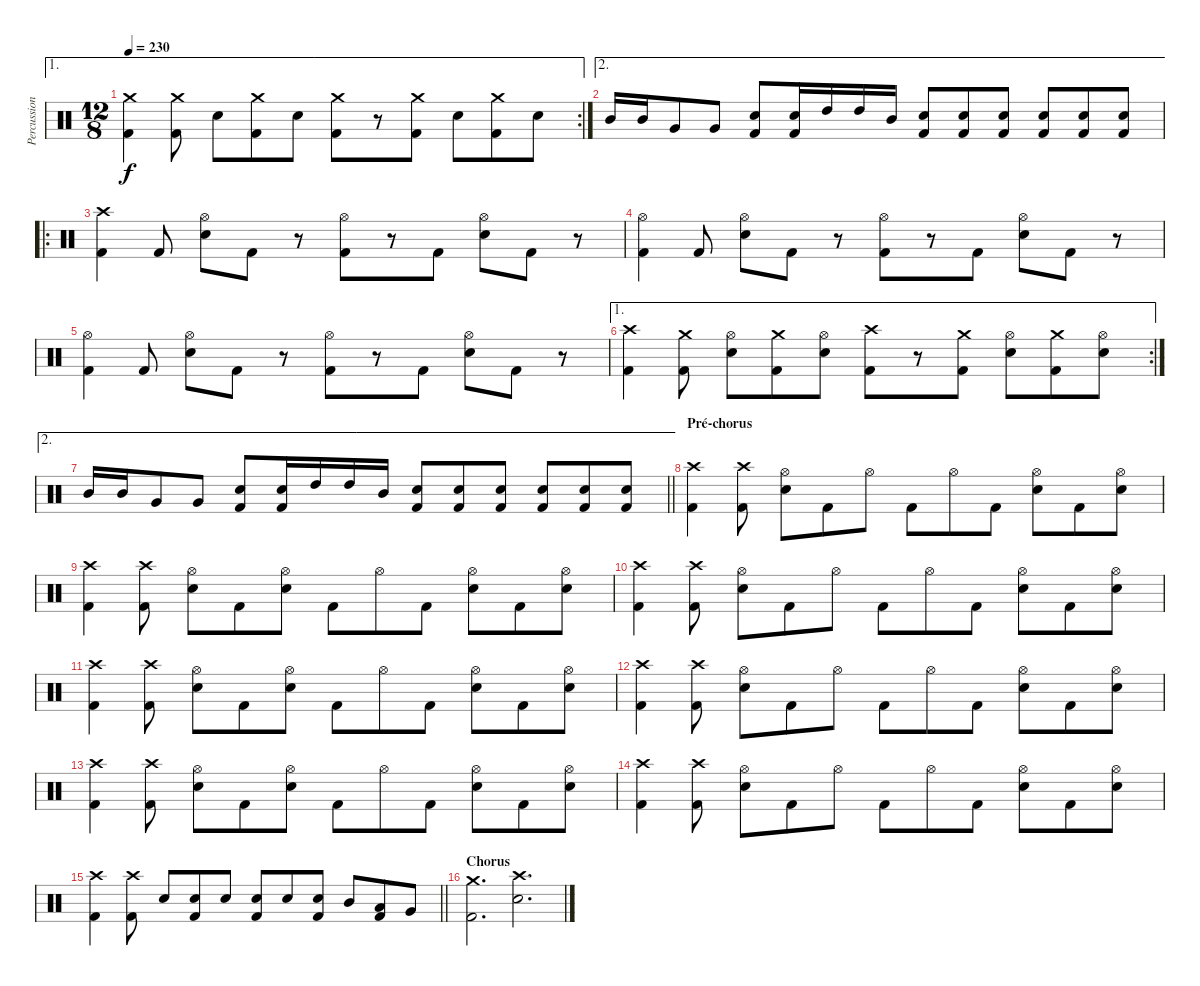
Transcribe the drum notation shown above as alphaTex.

\track ("Percussions" "Percussion") {instrument percussion}
\staff {score}
\articulation defaults
\ae 1
\rc 2
\ts (12 8)
\tempo 230
\clef neutral
\ks c
("Crash medium (hit)" "Kick (hit) 2").4{dy f} ("Crash medium (hit)" "Kick (hit) 2").8 "Electric Snare (hit)".8 ("Crash medium (hit)" "Kick (hit) 2").8 "Electric Snare (hit)".8 ("Crash medium (hit)" "Kick (hit) 2").8 r.8 ("Crash medium (hit)" "Kick (hit) 2").8 "Electric Snare (hit)".8 ("Crash medium (hit)" "Kick (hit) 2").8 "Electric Snare (hit)".8 |
\ae 2 "Mid Tom (hit)".16 "Mid Tom (hit)".16 "Very Low Tom (hit)".8 "Very Low Tom (hit)".8
("Electric Snare (hit)" "Kick (hit) 2").8 ("Electric Snare (hit)" "Kick (hit) 2").16 "High Tom (hit)".16 "High Tom (hit)".16 "Mid Tom (hit)".16 ("Electric Snare (hit)" "Kick (hit) 2").8 ("Electric Snare (hit)" "Kick (hit) 2").8 ("Electric Snare (hit)" "Kick (hit) 2").8 ("Electric Snare (hit)" "Kick (hit) 2").8 ("Electric Snare (hit)" "Kick (hit) 2").8 ("Electric Snare (hit)" "Kick (hit) 2").8 |
\ro
("Crash high (hit)" "Kick (hit) 2").4 "Kick (hit) 2".8 ("Hi-Hat (open)" "Electric Snare (hit)").8 "Kick (hit) 2".8 r.8 ("Hi-Hat (open)" "Kick (hit) 2").8 r.8 "Kick (hit) 2".8 ("Hi-Hat (open)" "Electric Snare (hit)").8 "Kick (hit) 2".8 r.8 |
("Hi-Hat (open)" "Kick (hit) 2").4 "Kick (hit) 2".8 ("Hi-Hat (open)" "Electric Snare (hit)").8 "Kick (hit) 2".8 r.8 ("Hi-Hat (open)" "Kick (hit) 2").8 r.8 "Kick (hit) 2".8 ("Hi-Hat (open)" "Electric Snare (hit)").8 "Kick (hit) 2".8 r.8 |
("Hi-Hat (open)" "Kick (hit) 2").4 "Kick (hit) 2".8 ("Hi-Hat (open)" "Electric Snare (hit)").8 "Kick (hit) 2".8 r.8 ("Hi-Hat (open)" "Kick (hit) 2").8 r.8 "Kick (hit) 2".8 ("Hi-Hat (open)" "Electric Snare (hit)").8 "Kick (hit) 2".8 r.8 |
\ae 1
\rc 2
("Crash high (hit)" "Kick (hit) 2").4 ("Crash medium (hit)" "Kick (hit) 2").8 ("Hi-Hat (open)" "Electric Snare (hit)").8 ("Crash medium (hit)" "Kick (hit) 2").8 ("Hi-Hat (open)" "Electric Snare (hit)").8 ("Crash high (hit)" "Kick (hit) 2").8 r.8 ("Crash medium (hit)" "Kick (hit) 2").8 ("Hi-Hat (open)" "Electric Snare (hit)").8 ("Crash medium (hit)" "Kick (hit) 2").8 ("Hi-Hat (open)" "Electric Snare (hit)").8 |
\ae 2
\barLineRight lightlight "Mid Tom (hit)".16 "Mid Tom (hit)".16 "Very Low Tom (hit)".8 "Very Low Tom (hit)".8
("Electric Snare (hit)" "Kick (hit) 2").8 ("Electric Snare (hit)" "Kick (hit) 2").16 "High Tom (hit)".16 "High Tom (hit)".16 "Mid Tom (hit)".16 ("Electric Snare (hit)" "Kick (hit) 2").8 ("Electric Snare (hit)" "Kick (hit) 2").8 ("Electric Snare (hit)" "Kick (hit) 2").8 ("Electric Snare (hit)" "Kick (hit) 2").8 ("Electric Snare (hit)" "Kick (hit) 2").8 ("Electric Snare (hit)" "Kick (hit) 2").8 |
\section ("" "Pré-chorus")
("Crash high (hit)" "Kick (hit) 2").4 ("Crash high (hit)" "Kick (hit) 2").8 ("Hi-Hat (open)" "Electric Snare (hit)").8 "Kick (hit) 2".8 "Hi-Hat (open)".8 "Kick (hit) 2".8 "Hi-Hat (open)".8 "Kick (hit) 2".8 ("Hi-Hat (open)" "Electric Snare (hit)").8 "Kick (hit) 2".8 ("Hi-Hat (open)" "Electric Snare (hit)").8 |
("Crash high (hit)" "Kick (hit) 2").4 ("Crash high (hit)" "Kick (hit) 2").8 ("Hi-Hat (open)" "Electric Snare (hit)").8 "Kick (hit) 2".8 ("Hi-Hat (open)" "Electric Snare (hit)").8 "Kick (hit) 2".8 "Hi-Hat (open)".8 "Kick (hit) 2".8 ("Hi-Hat (open)" "Electric Snare (hit)").8 "Kick (hit) 2".8 ("Hi-Hat (open)" "Electric Snare (hit)").8 |
("Crash high (hit)" "Kick (hit) 2").4 ("Crash high (hit)" "Kick (hit) 2").8 ("Hi-Hat (open)" "Electric Snare (hit)").8 "Kick (hit) 2".8 "Hi-Hat (open)".8 "Kick (hit) 2".8 "Hi-Hat (open)".8 "Kick (hit) 2".8 ("Hi-Hat (open)" "Electric Snare (hit)").8 "Kick (hit) 2".8 ("Hi-Hat (open)" "Electric Snare (hit)").8 |
("Crash high (hit)" "Kick (hit) 2").4 ("Crash high (hit)" "Kick (hit) 2").8 ("Hi-Hat (open)" "Electric Snare (hit)").8 "Kick (hit) 2".8 ("Hi-Hat (open)" "Electric Snare (hit)").8 "Kick (hit) 2".8 "Hi-Hat (open)".8 "Kick (hit) 2".8 ("Hi-Hat (open)" "Electric Snare (hit)").8 "Kick (hit) 2".8 ("Hi-Hat (open)" "Electric Snare (hit)").8 |
("Crash high (hit)" "Kick (hit) 2").4 ("Crash high (hit)" "Kick (hit) 2").8 ("Hi-Hat (open)" "Electric Snare (hit)").8 "Kick (hit) 2".8 "Hi-Hat (open)".8 "Kick (hit) 2".8 "Hi-Hat (open)".8 "Kick (hit) 2".8 ("Hi-Hat (open)" "Electric Snare (hit)").8 "Kick (hit) 2".8 ("Hi-Hat (open)" "Electric Snare (hit)").8 |
("Crash high (hit)" "Kick (hit) 2").4 ("Crash high (hit)" "Kick (hit) 2").8 ("Hi-Hat (open)" "Electric Snare (hit)").8 "Kick (hit) 2".8 ("Hi-Hat (open)" "Electric Snare (hit)").8 "Kick (hit) 2".8 "Hi-Hat (open)".8 "Kick (hit) 2".8 ("Hi-Hat (open)" "Electric Snare (hit)").8 "Kick (hit) 2".8 ("Hi-Hat (open)" "Electric Snare (hit)").8 |
("Crash high (hit)" "Kick (hit) 2").4 ("Crash high (hit)" "Kick (hit) 2").8 ("Hi-Hat (open)" "Electric Snare (hit)").8 "Kick (hit) 2".8 "Hi-Hat (open)".8 "Kick (hit) 2".8 "Hi-Hat (open)".8 "Kick (hit) 2".8 ("Hi-Hat (open)" "Electric Snare (hit)").8 "Kick (hit) 2".8 ("Hi-Hat (open)" "Electric Snare (hit)").8 |
\barLineRight lightlight
("Crash high (hit)" "Kick (hit) 2").4 ("Crash high (hit)" "Kick (hit) 2").8 "Electric Snare (hit)".8 ("Electric Snare (hit)" "Kick (hit) 2").8 "Electric Snare (hit)".8 ("Electric Snare (hit)" "Kick (hit) 2").8 "Electric Snare (hit)".8 ("Electric Snare (hit)" "Kick (hit) 2").8 "Mid Tom (hit)".8 ("Low Tom (hit)" "Kick (hit) 2").8 "Very Low Tom (hit)".8 |
\section ("" "Chorus")
("Crash medium (hit)" "Kick (hit) 2").2{d} ("Crash high (hit)" "Electric Snare (hit)").2{d}
